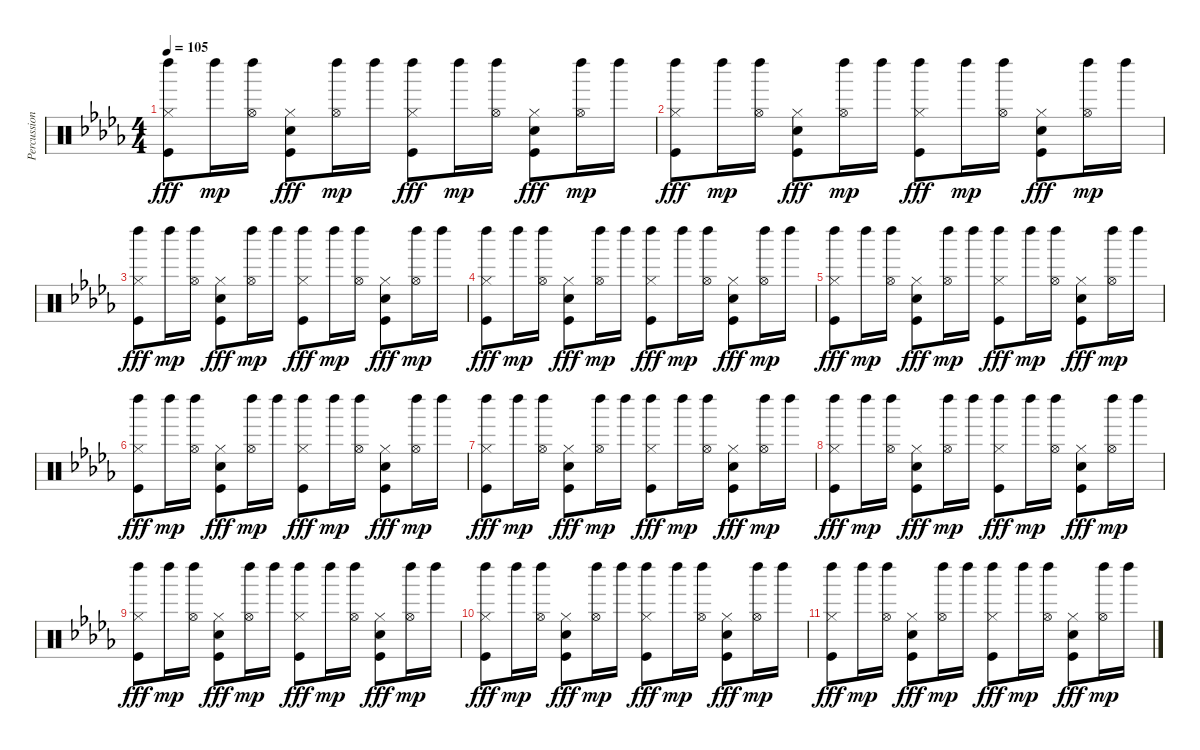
\track ("Percussion" "Percussion") {instrument percussion}
\staff {score}
\articulation defaults
\ts (4 4)
\tempo 105
\clef neutral
\ks db
("Hi-Hat (closed)" "Left Maraca (hit)" "Kick (hit)").8{dy fff} "Left Maraca (hit)".16{dy mp} ("Hi-Hat (open)" "Left Maraca (hit)").16 ("Hi-Hat (closed)" "Snare (hit) 2" "Kick (hit)").8{dy fff} ("Hi-Hat (open)" "Left Maraca (hit)").16{dy mp} "Left Maraca (hit)".16 ("Hi-Hat (closed)" "Left Maraca (hit)" "Kick (hit)").8{dy fff} "Left Maraca (hit)".16{dy mp} ("Hi-Hat (open)" "Left Maraca (hit)").16 ("Hi-Hat (closed)" "Snare (hit) 2" "Kick (hit)").8{dy fff} ("Hi-Hat (open)" "Left Maraca (hit)").16{dy mp} "Left Maraca (hit)".16 |
("Hi-Hat (closed)" "Left Maraca (hit)" "Kick (hit)").8{dy fff} "Left Maraca (hit)".16{dy mp} ("Hi-Hat (open)" "Left Maraca (hit)").16 ("Hi-Hat (closed)" "Snare (hit) 2" "Kick (hit)").8{dy fff} ("Hi-Hat (open)" "Left Maraca (hit)").16{dy mp} "Left Maraca (hit)".16 ("Hi-Hat (closed)" "Left Maraca (hit)" "Kick (hit)").8{dy fff} "Left Maraca (hit)".16{dy mp} ("Hi-Hat (open)" "Left Maraca (hit)").16 ("Hi-Hat (closed)" "Snare (hit) 2" "Kick (hit)").8{dy fff} ("Hi-Hat (open)" "Left Maraca (hit)").16{dy mp} "Left Maraca (hit)".16 |
("Hi-Hat (closed)" "Left Maraca (hit)" "Kick (hit)").8{dy fff} "Left Maraca (hit)".16{dy mp} ("Hi-Hat (open)" "Left Maraca (hit)").16 ("Hi-Hat (closed)" "Snare (hit) 2" "Kick (hit)").8{dy fff} ("Hi-Hat (open)" "Left Maraca (hit)").16{dy mp} "Left Maraca (hit)".16 ("Hi-Hat (closed)" "Left Maraca (hit)" "Kick (hit)").8{dy fff} "Left Maraca (hit)".16{dy mp} ("Hi-Hat (open)" "Left Maraca (hit)").16 ("Hi-Hat (closed)" "Snare (hit) 2" "Kick (hit)").8{dy fff} ("Hi-Hat (open)" "Left Maraca (hit)").16{dy mp} "Left Maraca (hit)".16 |
("Hi-Hat (closed)" "Left Maraca (hit)" "Kick (hit)").8{dy fff} "Left Maraca (hit)".16{dy mp} ("Hi-Hat (open)" "Left Maraca (hit)").16 ("Hi-Hat (closed)" "Snare (hit) 2" "Kick (hit)").8{dy fff} ("Hi-Hat (open)" "Left Maraca (hit)").16{dy mp} "Left Maraca (hit)".16 ("Hi-Hat (closed)" "Left Maraca (hit)" "Kick (hit)").8{dy fff} "Left Maraca (hit)".16{dy mp} ("Hi-Hat (open)" "Left Maraca (hit)").16 ("Hi-Hat (closed)" "Snare (hit) 2" "Kick (hit)").8{dy fff} ("Hi-Hat (open)" "Left Maraca (hit)").16{dy mp} "Left Maraca (hit)".16 |
("Hi-Hat (closed)" "Left Maraca (hit)" "Kick (hit)").8{dy fff} "Left Maraca (hit)".16{dy mp} ("Hi-Hat (open)" "Left Maraca (hit)").16 ("Hi-Hat (closed)" "Snare (hit) 2" "Kick (hit)").8{dy fff} ("Hi-Hat (open)" "Left Maraca (hit)").16{dy mp} "Left Maraca (hit)".16 ("Hi-Hat (closed)" "Left Maraca (hit)" "Kick (hit)").8{dy fff} "Left Maraca (hit)".16{dy mp} ("Hi-Hat (open)" "Left Maraca (hit)").16 ("Hi-Hat (closed)" "Snare (hit) 2" "Kick (hit)").8{dy fff} ("Hi-Hat (open)" "Left Maraca (hit)").16{dy mp} "Left Maraca (hit)".16 |
("Hi-Hat (closed)" "Left Maraca (hit)" "Kick (hit)").8{dy fff} "Left Maraca (hit)".16{dy mp} ("Hi-Hat (open)" "Left Maraca (hit)").16 ("Hi-Hat (closed)" "Snare (hit) 2" "Kick (hit)").8{dy fff} ("Hi-Hat (open)" "Left Maraca (hit)").16{dy mp} "Left Maraca (hit)".16 ("Hi-Hat (closed)" "Left Maraca (hit)" "Kick (hit)").8{dy fff} "Left Maraca (hit)".16{dy mp} ("Hi-Hat (open)" "Left Maraca (hit)").16 ("Hi-Hat (closed)" "Snare (hit) 2" "Kick (hit)").8{dy fff} ("Hi-Hat (open)" "Left Maraca (hit)").16{dy mp} "Left Maraca (hit)".16 |
("Hi-Hat (closed)" "Left Maraca (hit)" "Kick (hit)").8{dy fff} "Left Maraca (hit)".16{dy mp} ("Hi-Hat (open)" "Left Maraca (hit)").16 ("Hi-Hat (closed)" "Snare (hit) 2" "Kick (hit)").8{dy fff} ("Hi-Hat (open)" "Left Maraca (hit)").16{dy mp} "Left Maraca (hit)".16 ("Hi-Hat (closed)" "Left Maraca (hit)" "Kick (hit)").8{dy fff} "Left Maraca (hit)".16{dy mp} ("Hi-Hat (open)" "Left Maraca (hit)").16 ("Hi-Hat (closed)" "Snare (hit) 2" "Kick (hit)").8{dy fff} ("Hi-Hat (open)" "Left Maraca (hit)").16{dy mp} "Left Maraca (hit)".16 |
("Hi-Hat (closed)" "Left Maraca (hit)" "Kick (hit)").8{dy fff} "Left Maraca (hit)".16{dy mp} ("Hi-Hat (open)" "Left Maraca (hit)").16 ("Hi-Hat (closed)" "Snare (hit) 2" "Kick (hit)").8{dy fff} ("Hi-Hat (open)" "Left Maraca (hit)").16{dy mp} "Left Maraca (hit)".16 ("Hi-Hat (closed)" "Left Maraca (hit)" "Kick (hit)").8{dy fff} "Left Maraca (hit)".16{dy mp} ("Hi-Hat (open)" "Left Maraca (hit)").16 ("Hi-Hat (closed)" "Snare (hit) 2" "Kick (hit)").8{dy fff} ("Hi-Hat (open)" "Left Maraca (hit)").16{dy mp} "Left Maraca (hit)".16 |
("Hi-Hat (closed)" "Left Maraca (hit)" "Kick (hit)").8{dy fff} "Left Maraca (hit)".16{dy mp} ("Hi-Hat (open)" "Left Maraca (hit)").16 ("Hi-Hat (closed)" "Snare (hit) 2" "Kick (hit)").8{dy fff} ("Hi-Hat (open)" "Left Maraca (hit)").16{dy mp} "Left Maraca (hit)".16 ("Hi-Hat (closed)" "Left Maraca (hit)" "Kick (hit)").8{dy fff} "Left Maraca (hit)".16{dy mp} ("Hi-Hat (open)" "Left Maraca (hit)").16 ("Hi-Hat (closed)" "Snare (hit) 2" "Kick (hit)").8{dy fff} ("Hi-Hat (open)" "Left Maraca (hit)").16{dy mp} "Left Maraca (hit)".16 |
("Hi-Hat (closed)" "Left Maraca (hit)" "Kick (hit)").8{dy fff} "Left Maraca (hit)".16{dy mp} ("Hi-Hat (open)" "Left Maraca (hit)").16 ("Hi-Hat (closed)" "Snare (hit) 2" "Kick (hit)").8{dy fff} ("Hi-Hat (open)" "Left Maraca (hit)").16{dy mp} "Left Maraca (hit)".16 ("Hi-Hat (closed)" "Left Maraca (hit)" "Kick (hit)").8{dy fff} "Left Maraca (hit)".16{dy mp} ("Hi-Hat (open)" "Left Maraca (hit)").16 ("Hi-Hat (closed)" "Snare (hit) 2" "Kick (hit)").8{dy fff} ("Hi-Hat (open)" "Left Maraca (hit)").16{dy mp} "Left Maraca (hit)".16 |
("Hi-Hat (closed)" "Left Maraca (hit)" "Kick (hit)").8{dy fff} "Left Maraca (hit)".16{dy mp} ("Hi-Hat (open)" "Left Maraca (hit)").16 ("Hi-Hat (closed)" "Snare (hit) 2" "Kick (hit)").8{dy fff} ("Hi-Hat (open)" "Left Maraca (hit)").16{dy mp} "Left Maraca (hit)".16 ("Hi-Hat (closed)" "Left Maraca (hit)" "Kick (hit)").8{dy fff} "Left Maraca (hit)".16{dy mp} ("Hi-Hat (open)" "Left Maraca (hit)").16 ("Hi-Hat (closed)" "Snare (hit) 2" "Kick (hit)").8{dy fff} ("Hi-Hat (open)" "Left Maraca (hit)").16{dy mp} "Left Maraca (hit)".16
